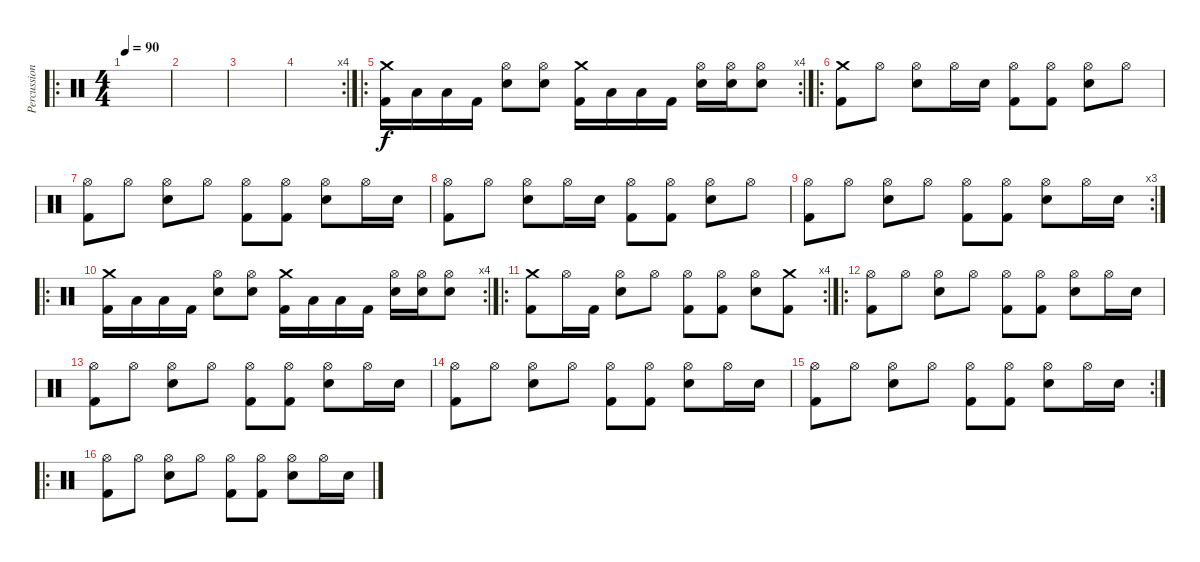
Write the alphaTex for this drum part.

\track ("Percussion" "Percussion") {instrument percussion}
\staff {score}
\articulation defaults
\ro
\ts (4 4)
\tempo 90
\clef neutral
\ks c
|
|
|
\rc 4
|
\ro
\rc 4
("Crash medium (hit)" "Kick (hit) 2").16 "Low Tom (hit)".16 "Low Floor Tom (hit)".16 "Kick (hit) 2".16 ("Hi-Hat (open)" "Electric Snare (hit)").8 ("Hi-Hat (open)" "Electric Snare (hit)").8 ("Crash medium (hit)" "Kick (hit) 2").16 "Low Tom (hit)".16 "Low Floor Tom (hit)".16 "Kick (hit) 2".16 ("Hi-Hat (open)" "Electric Snare (hit)").16 ("Hi-Hat (open)" "Electric Snare (hit)").16 ("Hi-Hat (open)" "Electric Snare (hit)").8 |
\ro
("Crash medium (hit)" "Kick (hit) 2").8 "Hi-Hat (open)".8 ("Hi-Hat (open)" "Electric Snare (hit)").8 "Hi-Hat (open)".16 "Electric Snare (hit)".16 ("Hi-Hat (open)" "Kick (hit) 2").8 ("Hi-Hat (open)" "Kick (hit) 2").8 ("Hi-Hat (open)" "Electric Snare (hit)").8 "Hi-Hat (open)".8 |
("Hi-Hat (open)" "Kick (hit) 2").8 "Hi-Hat (open)".8 ("Hi-Hat (open)" "Electric Snare (hit)").8 "Hi-Hat (open)".8 ("Hi-Hat (open)" "Kick (hit) 2").8 ("Hi-Hat (open)" "Kick (hit) 2").8 ("Hi-Hat (open)" "Electric Snare (hit)").8 "Hi-Hat (open)".16 "Electric Snare (hit)".16 |
("Hi-Hat (open)" "Kick (hit) 2").8 "Hi-Hat (open)".8 ("Hi-Hat (open)" "Electric Snare (hit)").8 "Hi-Hat (open)".16 "Electric Snare (hit)".16 ("Hi-Hat (open)" "Kick (hit) 2").8 ("Hi-Hat (open)" "Kick (hit) 2").8 ("Hi-Hat (open)" "Electric Snare (hit)").8 "Hi-Hat (open)".8 |
\rc 3
("Hi-Hat (open)" "Kick (hit) 2").8 "Hi-Hat (open)".8 ("Hi-Hat (open)" "Electric Snare (hit)").8 "Hi-Hat (open)".8 ("Hi-Hat (open)" "Kick (hit) 2").8 ("Hi-Hat (open)" "Kick (hit) 2").8 ("Hi-Hat (open)" "Electric Snare (hit)").8 "Hi-Hat (open)".16 "Electric Snare (hit)".16 |
\ro
\rc 4
("Crash medium (hit)" "Kick (hit) 2").16 "Low Tom (hit)".16 "Low Floor Tom (hit)".16 "Kick (hit) 2".16 ("Hi-Hat (open)" "Electric Snare (hit)").8 ("Hi-Hat (open)" "Electric Snare (hit)").8 ("Crash medium (hit)" "Kick (hit) 2").16 "Low Tom (hit)".16 "Low Floor Tom (hit)".16 "Kick (hit) 2".16 ("Hi-Hat (open)" "Electric Snare (hit)").16 ("Hi-Hat (open)" "Electric Snare (hit)").16 ("Hi-Hat (open)" "Electric Snare (hit)").8 |
\ro
\rc 4
("Crash medium (hit)" "Kick (hit) 2").8 "Hi-Hat (open)".16 "Kick (hit) 2".16 ("Hi-Hat (open)" "Electric Snare (hit)").8 "Hi-Hat (open)".8 ("Hi-Hat (open)" "Kick (hit) 2").8 ("Hi-Hat (open)" "Kick (hit) 2").8 ("Hi-Hat (open)" "Electric Snare (hit)").8 ("Crash medium (hit)" "Kick (hit) 2").8 |
\ro
("Hi-Hat (open)" "Kick (hit) 2").8 "Hi-Hat (open)".8 ("Hi-Hat (open)" "Electric Snare (hit)").8 "Hi-Hat (open)".8 ("Hi-Hat (open)" "Kick (hit) 2").8 ("Hi-Hat (open)" "Kick (hit) 2").8 ("Hi-Hat (open)" "Electric Snare (hit)").8 "Hi-Hat (open)".16 "Electric Snare (hit)".16 |
("Hi-Hat (open)" "Kick (hit) 2").8 "Hi-Hat (open)".8 ("Hi-Hat (open)" "Electric Snare (hit)").8 "Hi-Hat (open)".8 ("Hi-Hat (open)" "Kick (hit) 2").8 ("Hi-Hat (open)" "Kick (hit) 2").8 ("Hi-Hat (open)" "Electric Snare (hit)").8 "Hi-Hat (open)".16 "Electric Snare (hit)".16 |
("Hi-Hat (open)" "Kick (hit) 2").8 "Hi-Hat (open)".8 ("Hi-Hat (open)" "Electric Snare (hit)").8 "Hi-Hat (open)".8 ("Hi-Hat (open)" "Kick (hit) 2").8 ("Hi-Hat (open)" "Kick (hit) 2").8 ("Hi-Hat (open)" "Electric Snare (hit)").8 "Hi-Hat (open)".16 "Electric Snare (hit)".16 |
\rc 2
("Hi-Hat (open)" "Kick (hit) 2").8 "Hi-Hat (open)".8 ("Hi-Hat (open)" "Electric Snare (hit)").8 "Hi-Hat (open)".8 ("Hi-Hat (open)" "Kick (hit) 2").8 ("Hi-Hat (open)" "Kick (hit) 2").8 ("Hi-Hat (open)" "Electric Snare (hit)").8 "Hi-Hat (open)".16 "Electric Snare (hit)".16 |
\ro
("Hi-Hat (open)" "Kick (hit) 2").8 "Hi-Hat (open)".8 ("Hi-Hat (open)" "Electric Snare (hit)").8 "Hi-Hat (open)".8 ("Hi-Hat (open)" "Kick (hit) 2").8 ("Hi-Hat (open)" "Kick (hit) 2").8 ("Hi-Hat (open)" "Electric Snare (hit)").8 "Hi-Hat (open)".16 "Electric Snare (hit)".16
